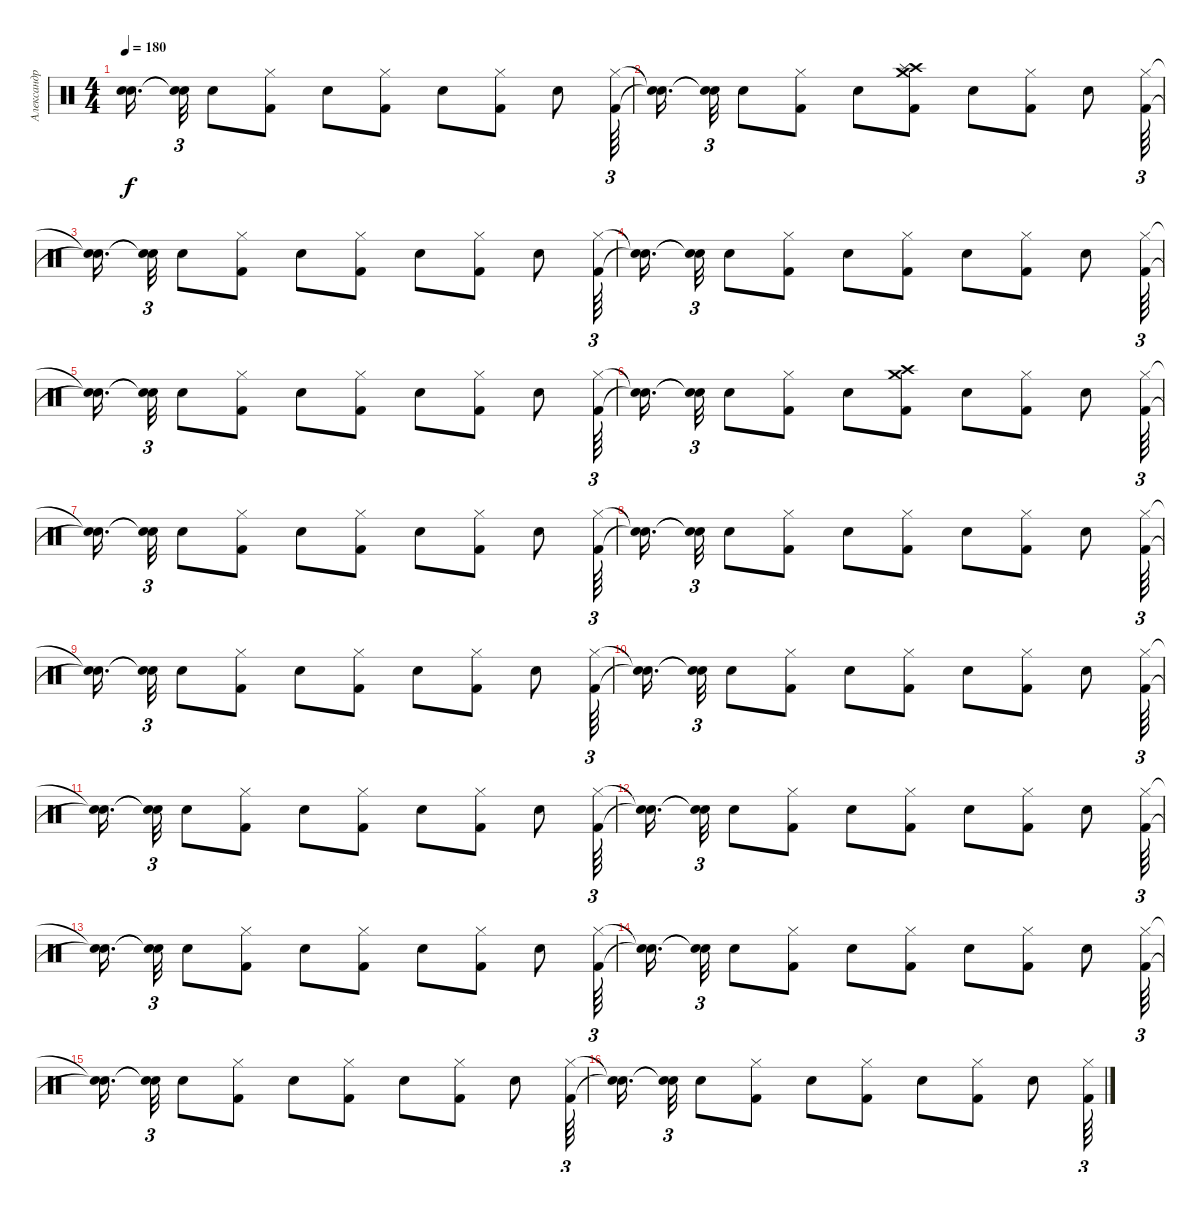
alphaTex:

\track ("Александр Карпухин" "Александр ") {instrument percussion}
\staff {score}
\articulation defaults
\ts (4 4)
\tempo 180
\clef neutral
\ks c
("Snare (hit)"{t} "Snare (hit)"{t}).16{d dy f beam splitsecondary} ("Snare (hit)"{t} "Snare (hit)"{t}).32{tu (3 2)} "Snare (hit) 2".8 ("Hi-Hat (closed)" "Kick (hit) 2").8 "Snare (hit) 2".8 ("Hi-Hat (closed)" "Kick (hit) 2").8 "Snare (hit) 2".8 ("Hi-Hat (closed)" "Kick (hit) 2").8 "Snare (hit) 2".8 ("Hi-Hat (closed)" "Kick (hit) 2").64{tu (3 2)} |
("Snare (hit)"{t} "Snare (hit)"{t}).16{d beam splitsecondary} ("Snare (hit)"{t} "Snare (hit)"{t}).32{tu (3 2)} "Snare (hit) 2".8 ("Hi-Hat (closed)" "Kick (hit) 2").8 "Snare (hit) 2".8 ("Crash high (hit)" "Crash medium (hit)" "Splash (hit)" "Kick (hit) 2").8 "Snare (hit) 2".8 ("Hi-Hat (closed)" "Kick (hit) 2").8 "Snare (hit) 2".8 ("Hi-Hat (closed)" "Kick (hit) 2").64{tu (3 2)} |
("Snare (hit)"{t} "Snare (hit)"{t}).16{d beam splitsecondary} ("Snare (hit)"{t} "Snare (hit)"{t}).32{tu (3 2)} "Snare (hit) 2".8 ("Hi-Hat (closed)" "Kick (hit) 2").8 "Snare (hit) 2".8 ("Hi-Hat (closed)" "Kick (hit) 2").8 "Snare (hit) 2".8 ("Hi-Hat (closed)" "Kick (hit) 2").8 "Snare (hit) 2".8 ("Hi-Hat (closed)" "Kick (hit) 2").64{tu (3 2)} |
("Snare (hit)"{t} "Snare (hit)"{t}).16{d beam splitsecondary} ("Snare (hit)"{t} "Snare (hit)"{t}).32{tu (3 2)} "Snare (hit) 2".8 ("Hi-Hat (closed)" "Kick (hit) 2").8 "Snare (hit) 2".8 ("Hi-Hat (closed)" "Kick (hit) 2").8 "Snare (hit) 2".8 ("Hi-Hat (closed)" "Kick (hit) 2").8 "Snare (hit) 2".8 ("Hi-Hat (closed)" "Kick (hit) 2").64{tu (3 2)} |
("Snare (hit)"{t} "Snare (hit)"{t}).16{d beam splitsecondary} ("Snare (hit)"{t} "Snare (hit)"{t}).32{tu (3 2)} "Snare (hit) 2".8 ("Hi-Hat (closed)" "Kick (hit) 2").8 "Snare (hit) 2".8 ("Hi-Hat (closed)" "Kick (hit) 2").8 "Snare (hit) 2".8 ("Hi-Hat (closed)" "Kick (hit) 2").8 "Snare (hit) 2".8 ("Hi-Hat (closed)" "Kick (hit) 2").64{tu (3 2)} |
("Snare (hit)"{t} "Snare (hit)"{t}).16{d beam splitsecondary} ("Snare (hit)"{t} "Snare (hit)"{t}).32{tu (3 2)} "Snare (hit) 2".8 ("Hi-Hat (closed)" "Kick (hit) 2").8 "Snare (hit) 2".8 ("Crash high (hit)" "Crash medium (hit)" "Kick (hit) 2").8 "Snare (hit) 2".8 ("Hi-Hat (closed)" "Kick (hit) 2").8 "Snare (hit) 2".8 ("Hi-Hat (closed)" "Kick (hit) 2").64{tu (3 2)} |
("Snare (hit)"{t} "Snare (hit)"{t}).16{d beam splitsecondary} ("Snare (hit)"{t} "Snare (hit)"{t}).32{tu (3 2)} "Snare (hit) 2".8 ("Hi-Hat (closed)" "Kick (hit) 2").8 "Snare (hit) 2".8 ("Hi-Hat (closed)" "Kick (hit) 2").8 "Snare (hit) 2".8 ("Hi-Hat (closed)" "Kick (hit) 2").8 "Snare (hit) 2".8 ("Hi-Hat (closed)" "Kick (hit) 2").64{tu (3 2)} |
("Snare (hit)"{t} "Snare (hit)"{t}).16{d beam splitsecondary} ("Snare (hit)"{t} "Snare (hit)"{t}).32{tu (3 2)} "Snare (hit) 2".8 ("Hi-Hat (closed)" "Kick (hit) 2").8 "Snare (hit) 2".8 ("Hi-Hat (closed)" "Kick (hit) 2").8 "Snare (hit) 2".8 ("Hi-Hat (closed)" "Kick (hit) 2").8 "Snare (hit) 2".8 ("Hi-Hat (closed)" "Kick (hit) 2").64{tu (3 2)} |
("Snare (hit)"{t} "Snare (hit)"{t}).16{d beam splitsecondary} ("Snare (hit)"{t} "Snare (hit)"{t}).32{tu (3 2)} "Snare (hit) 2".8 ("Hi-Hat (closed)" "Kick (hit) 2").8 "Snare (hit) 2".8 ("Hi-Hat (closed)" "Kick (hit) 2").8 "Snare (hit) 2".8 ("Hi-Hat (closed)" "Kick (hit) 2").8 "Snare (hit) 2".8 ("Hi-Hat (closed)" "Kick (hit) 2").64{tu (3 2)} |
("Snare (hit)"{t} "Snare (hit)"{t}).16{d beam splitsecondary} ("Snare (hit)"{t} "Snare (hit)"{t}).32{tu (3 2)} "Snare (hit) 2".8 ("Hi-Hat (closed)" "Kick (hit) 2").8 "Snare (hit) 2".8 ("Hi-Hat (closed)" "Kick (hit) 2").8 "Snare (hit) 2".8 ("Hi-Hat (closed)" "Kick (hit) 2").8 "Snare (hit) 2".8 ("Hi-Hat (closed)" "Kick (hit) 2").64{tu (3 2)} |
("Snare (hit)"{t} "Snare (hit)"{t}).16{d beam splitsecondary} ("Snare (hit)"{t} "Snare (hit)"{t}).32{tu (3 2)} "Snare (hit) 2".8 ("Hi-Hat (closed)" "Kick (hit) 2").8 "Snare (hit) 2".8 ("Hi-Hat (closed)" "Kick (hit) 2").8 "Snare (hit) 2".8 ("Hi-Hat (closed)" "Kick (hit) 2").8 "Snare (hit) 2".8 ("Hi-Hat (closed)" "Kick (hit) 2").64{tu (3 2)} |
("Snare (hit)"{t} "Snare (hit)"{t}).16{d beam splitsecondary} ("Snare (hit)"{t} "Snare (hit)"{t}).32{tu (3 2)} "Snare (hit) 2".8 ("Hi-Hat (closed)" "Kick (hit) 2").8 "Snare (hit) 2".8 ("Hi-Hat (closed)" "Kick (hit) 2").8 "Snare (hit) 2".8 ("Hi-Hat (closed)" "Kick (hit) 2").8 "Snare (hit) 2".8 ("Hi-Hat (closed)" "Kick (hit) 2").64{tu (3 2)} |
("Snare (hit)"{t} "Snare (hit)"{t}).16{d beam splitsecondary} ("Snare (hit)"{t} "Snare (hit)"{t}).32{tu (3 2)} "Snare (hit) 2".8 ("Hi-Hat (closed)" "Kick (hit) 2").8 "Snare (hit) 2".8 ("Hi-Hat (closed)" "Kick (hit) 2").8 "Snare (hit) 2".8 ("Hi-Hat (closed)" "Kick (hit) 2").8 "Snare (hit) 2".8 ("Hi-Hat (closed)" "Kick (hit) 2").64{tu (3 2)} |
("Snare (hit)"{t} "Snare (hit)"{t}).16{d beam splitsecondary} ("Snare (hit)"{t} "Snare (hit)"{t}).32{tu (3 2)} "Snare (hit) 2".8 ("Hi-Hat (closed)" "Kick (hit) 2").8 "Snare (hit) 2".8 ("Hi-Hat (closed)" "Kick (hit) 2").8 "Snare (hit) 2".8 ("Hi-Hat (closed)" "Kick (hit) 2").8 "Snare (hit) 2".8 ("Hi-Hat (closed)" "Kick (hit) 2").64{tu (3 2)} |
("Snare (hit)"{t} "Snare (hit)"{t}).16{d beam splitsecondary} ("Snare (hit)"{t} "Snare (hit)"{t}).32{tu (3 2)} "Snare (hit) 2".8 ("Hi-Hat (closed)" "Kick (hit) 2").8 "Snare (hit) 2".8 ("Hi-Hat (closed)" "Kick (hit) 2").8 "Snare (hit) 2".8 ("Hi-Hat (closed)" "Kick (hit) 2").8 "Snare (hit) 2".8 ("Hi-Hat (closed)" "Kick (hit) 2").64{tu (3 2)} |
("Snare (hit)"{t} "Snare (hit)"{t}).16{d beam splitsecondary} ("Snare (hit)"{t} "Snare (hit)"{t}).32{tu (3 2)} "Snare (hit) 2".8 ("Hi-Hat (closed)" "Kick (hit) 2").8 "Snare (hit) 2".8 ("Hi-Hat (closed)" "Kick (hit) 2").8 "Snare (hit) 2".8 ("Hi-Hat (closed)" "Kick (hit) 2").8 "Snare (hit) 2".8 ("Hi-Hat (closed)" "Kick (hit) 2").64{tu (3 2)}
